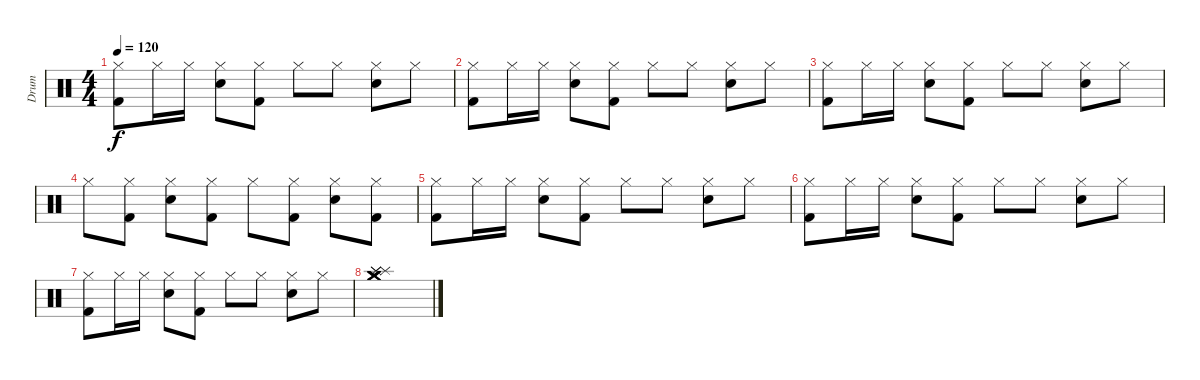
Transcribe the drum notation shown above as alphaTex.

\track ("Drum" "Drum") {instrument percussion}
\staff {score}
\articulation defaults
\ts (4 4)
\tempo 120
\clef neutral
\ks c
("Kick (hit) 2" "Hi-Hat (closed)").8{dy f} "Hi-Hat (closed)".16 "Hi-Hat (closed)".16 ("Snare (hit) 2" "Hi-Hat (closed)").8 ("Kick (hit) 2" "Hi-Hat (closed)").8 "Hi-Hat (closed)".8 "Hi-Hat (closed)".8 ("Snare (hit) 2" "Hi-Hat (closed)").8 "Hi-Hat (closed)".8 |
("Kick (hit) 2" "Hi-Hat (closed)").8 "Hi-Hat (closed)".16 "Hi-Hat (closed)".16 ("Snare (hit) 2" "Hi-Hat (closed)").8 ("Kick (hit) 2" "Hi-Hat (closed)").8 "Hi-Hat (closed)".8 "Hi-Hat (closed)".8 ("Snare (hit) 2" "Hi-Hat (closed)").8 "Hi-Hat (closed)".8 |
("Kick (hit) 2" "Hi-Hat (closed)").8 "Hi-Hat (closed)".16 "Hi-Hat (closed)".16 ("Snare (hit) 2" "Hi-Hat (closed)").8 ("Kick (hit) 2" "Hi-Hat (closed)").8 "Hi-Hat (closed)".8 "Hi-Hat (closed)".8 ("Snare (hit) 2" "Hi-Hat (closed)").8 "Hi-Hat (closed)".8 |
"Hi-Hat (closed)".8 ("Kick (hit) 2" "Hi-Hat (closed)").8 ("Snare (hit) 2" "Hi-Hat (closed)").8 ("Kick (hit) 2" "Hi-Hat (closed)").8 "Hi-Hat (closed)".8 ("Kick (hit) 2" "Hi-Hat (closed)").8 ("Snare (hit) 2" "Hi-Hat (closed)").8 ("Kick (hit) 2" "Hi-Hat (closed)").8 |
("Kick (hit) 2" "Hi-Hat (closed)").8 "Hi-Hat (closed)".16 "Hi-Hat (closed)".16 ("Snare (hit) 2" "Hi-Hat (closed)").8 ("Kick (hit) 2" "Hi-Hat (closed)").8 "Hi-Hat (closed)".8 "Hi-Hat (closed)".8 ("Snare (hit) 2" "Hi-Hat (closed)").8 "Hi-Hat (closed)".8 |
("Kick (hit) 2" "Hi-Hat (closed)").8 "Hi-Hat (closed)".16 "Hi-Hat (closed)".16 ("Snare (hit) 2" "Hi-Hat (closed)").8 ("Kick (hit) 2" "Hi-Hat (closed)").8 "Hi-Hat (closed)".8 "Hi-Hat (closed)".8 ("Snare (hit) 2" "Hi-Hat (closed)").8 "Hi-Hat (closed)".8 |
("Kick (hit) 2" "Hi-Hat (closed)").8 "Hi-Hat (closed)".16 "Hi-Hat (closed)".16 ("Snare (hit) 2" "Hi-Hat (closed)").8 ("Kick (hit) 2" "Hi-Hat (closed)").8 "Hi-Hat (closed)".8 "Hi-Hat (closed)".8 ("Snare (hit) 2" "Hi-Hat (closed)").8 "Hi-Hat (closed)".8 |
("Crash medium (hit)" "Splash (hit)" "Crash medium (hit)" "Splash (hit)" "Crash medium (hit)" "Splash (hit)").1
